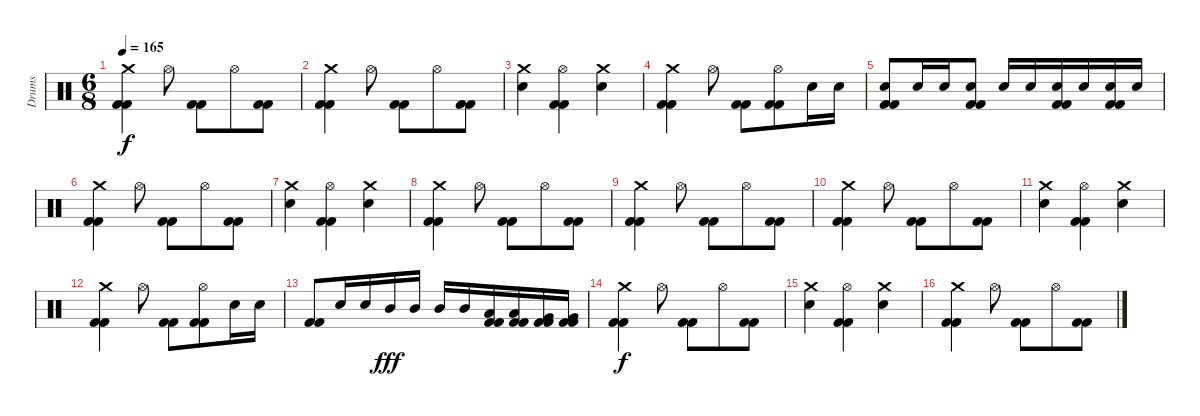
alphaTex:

\track ("Drums" "Drums") {instrument percussion}
\staff {score}
\articulation defaults
\ts (6 8)
\tempo 165
\clef neutral
\ks c
("Crash medium (hit)" "Kick (hit) 2" "Kick (hit) 2").4{dy f} "Hi-Hat (open)".8 ("Kick (hit) 2" "Kick (hit) 2").8 "Hi-Hat (open)".8 ("Kick (hit) 2" "Kick (hit) 2").8 |
("Crash medium (hit)" "Kick (hit) 2" "Kick (hit) 2").4 "Hi-Hat (open)".8 ("Kick (hit) 2" "Kick (hit) 2").8 "Hi-Hat (open)".8 ("Kick (hit) 2" "Kick (hit) 2").8 |
("Crash medium (hit)" "Electric Snare (hit)").4 ("Hi-Hat (open)" "Kick (hit) 2" "Kick (hit) 2").4 ("Crash medium (hit)" "Electric Snare (hit)").4 |
("Crash medium (hit)" "Kick (hit) 2" "Kick (hit) 2").4 "Hi-Hat (open)".8 ("Kick (hit) 2" "Kick (hit) 2").8 ("Hi-Hat (open)" "Kick (hit) 2" "Kick (hit) 2").8 "Electric Snare (hit)".16 "Electric Snare (hit)".16 |
("Electric Snare (hit)" "Kick (hit) 2" "Kick (hit) 2").8 "Electric Snare (hit)".16 "Electric Snare (hit)".16 ("Electric Snare (hit)" "Kick (hit) 2" "Kick (hit) 2").8 "Electric Snare (hit)".16 "Electric Snare (hit)".16 ("Electric Snare (hit)" "Kick (hit) 2" "Kick (hit) 2").16 "Electric Snare (hit)".16 ("Electric Snare (hit)" "Kick (hit) 2" "Kick (hit) 2").16 "Electric Snare (hit)".16 |
("Crash medium (hit)" "Kick (hit) 2" "Kick (hit) 2").4 "Hi-Hat (open)".8 ("Kick (hit) 2" "Kick (hit) 2").8 "Hi-Hat (open)".8 ("Kick (hit) 2" "Kick (hit) 2").8 |
("Crash medium (hit)" "Electric Snare (hit)").4 ("Hi-Hat (open)" "Kick (hit) 2" "Kick (hit) 2").4 ("Crash medium (hit)" "Electric Snare (hit)").4 |
("Crash medium (hit)" "Kick (hit) 2" "Kick (hit) 2").4 "Hi-Hat (open)".8 ("Kick (hit) 2" "Kick (hit) 2").8 "Hi-Hat (open)".8 ("Kick (hit) 2" "Kick (hit) 2").8 |
("Crash medium (hit)" "Kick (hit) 2" "Kick (hit) 2").4 "Hi-Hat (open)".8 ("Kick (hit) 2" "Kick (hit) 2").8 "Hi-Hat (open)".8 ("Kick (hit) 2" "Kick (hit) 2").8 |
("Crash medium (hit)" "Kick (hit) 2" "Kick (hit) 2").4 "Hi-Hat (open)".8 ("Kick (hit) 2" "Kick (hit) 2").8 "Hi-Hat (open)".8 ("Kick (hit) 2" "Kick (hit) 2").8 |
("Crash medium (hit)" "Electric Snare (hit)").4 ("Hi-Hat (open)" "Kick (hit) 2" "Kick (hit) 2").4 ("Crash medium (hit)" "Electric Snare (hit)").4 |
("Crash medium (hit)" "Kick (hit) 2" "Kick (hit) 2").4 "Hi-Hat (open)".8 ("Kick (hit) 2" "Kick (hit) 2").8 ("Hi-Hat (open)" "Kick (hit) 2" "Kick (hit) 2").8 "Electric Snare (hit)".16 "Electric Snare (hit)".16 |
("Kick (hit) 2" "Kick (hit) 2").8 "Electric Snare (hit)".16 "Electric Snare (hit)".16 "Mid Tom (hit)".16{dy fff} "Mid Tom (hit)".16 "Mid Tom (hit)".16 "Mid Tom (hit)".16 ("Low Tom (hit)" "Kick (hit) 2" "Kick (hit) 2").16 ("Low Tom (hit)" "Kick (hit) 2" "Kick (hit) 2").16 ("Very Low Tom (hit)" "Kick (hit) 2" "Kick (hit) 2").16 ("Very Low Tom (hit)" "Kick (hit) 2" "Kick (hit) 2").16 |
("Crash medium (hit)" "Kick (hit) 2" "Kick (hit) 2").4{dy f} "Hi-Hat (open)".8 ("Kick (hit) 2" "Kick (hit) 2").8 "Hi-Hat (open)".8 ("Kick (hit) 2" "Kick (hit) 2").8 |
("Crash medium (hit)" "Electric Snare (hit)").4 ("Hi-Hat (open)" "Kick (hit) 2" "Kick (hit) 2").4 ("Crash medium (hit)" "Electric Snare (hit)").4 |
("Crash medium (hit)" "Kick (hit) 2" "Kick (hit) 2").4 "Hi-Hat (open)".8 ("Kick (hit) 2" "Kick (hit) 2").8 "Hi-Hat (open)".8 ("Kick (hit) 2" "Kick (hit) 2").8
